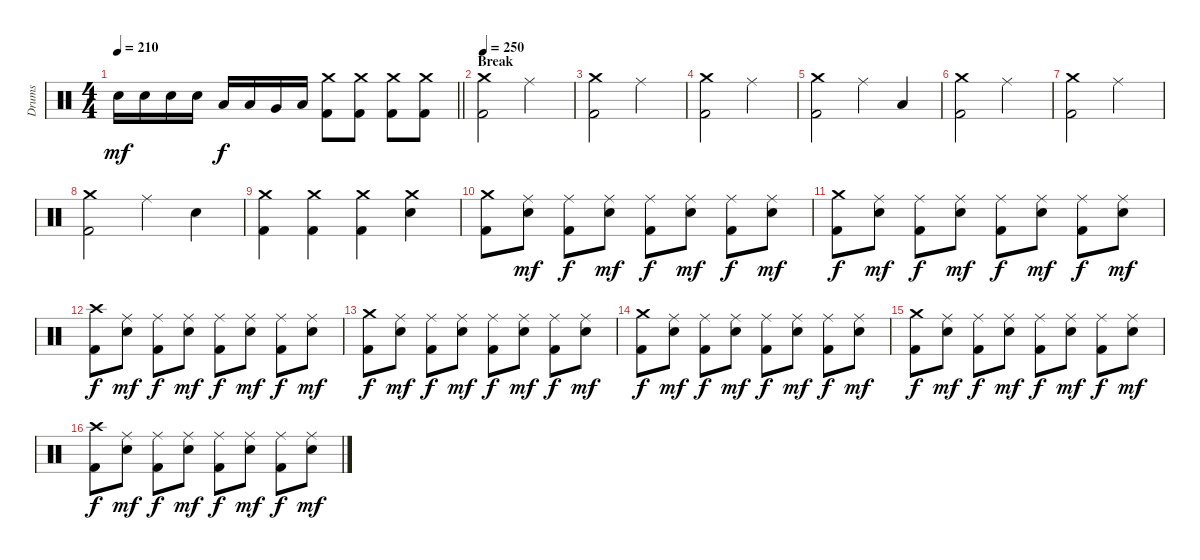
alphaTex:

\track ("Drums" "Drums") {instrument percussion}
\staff {score}
\articulation defaults
\ts (4 4)
\tempo 210
\clef neutral
\barLineRight lightlight
\ks c "Snare (hit) 2".16{dy mf} "Snare (hit) 2".16 "Snare (hit) 2".16 "Snare (hit) 2".16 "Low Tom (hit)".16{dy f} "Low Tom (hit)".16 "Very Low Tom (hit)".16 "Low Floor Tom (hit)".16
("Crash medium (hit)" "Kick (hit) 2").8 ("Crash medium (hit)" "Kick (hit) 2").8 ("Crash medium (hit)" "Kick (hit) 2").8 ("Crash medium (hit)" "Kick (hit) 2").8 |
\section ("" "Break")
\tempo 250
("Crash medium (hit)" "Kick (hit) 2").2 "Ride (middle)".2 |
("Crash medium (hit)" "Kick (hit) 2").2 "Ride (middle)".2 |
("Crash medium (hit)" "Kick (hit) 2").2 "Ride (middle)".2 |
("Crash medium (hit)" "Kick (hit) 2").2 "Ride (middle)".4 "Low Tom (hit)".4 |
("Crash medium (hit)" "Kick (hit) 2").2 "Ride (middle)".2 |
("Crash medium (hit)" "Kick (hit) 2").2 "Ride (middle)".2 |
("Crash medium (hit)" "Kick (hit) 2").2 "Ride (middle)".4 "Snare (hit) 2".4 |
("Crash medium (hit)" "Kick (hit) 2").4 ("Crash medium (hit)" "Kick (hit) 2").4 ("Crash medium (hit)" "Kick (hit) 2").4 ("Crash medium (hit)" "Snare (hit) 2").4 |
("Crash medium (hit)" "Kick (hit) 2").8 ("Ride (middle)" "Snare (hit) 2").8{dy mf} ("Ride (middle)" "Kick (hit) 2").8{dy f} ("Ride (middle)" "Snare (hit) 2").8{dy mf} ("Ride (middle)" "Kick (hit) 2").8{dy f} ("Ride (middle)" "Snare (hit) 2").8{dy mf} ("Ride (middle)" "Kick (hit) 2").8{dy f} ("Ride (middle)" "Snare (hit) 2").8{dy mf} |
("Crash medium (hit)" "Kick (hit) 2").8{dy f} ("Ride (middle)" "Snare (hit) 2").8{dy mf} ("Ride (middle)" "Kick (hit) 2").8{dy f} ("Ride (middle)" "Snare (hit) 2").8{dy mf} ("Ride (middle)" "Kick (hit) 2").8{dy f} ("Ride (middle)" "Snare (hit) 2").8{dy mf} ("Ride (middle)" "Kick (hit) 2").8{dy f} ("Ride (middle)" "Snare (hit) 2").8{dy mf} |
("Crash high (hit)" "Kick (hit) 2").8{dy f} ("Ride (middle)" "Snare (hit) 2").8{dy mf} ("Ride (middle)" "Kick (hit) 2").8{dy f} ("Ride (middle)" "Snare (hit) 2").8{dy mf} ("Ride (middle)" "Kick (hit) 2").8{dy f} ("Ride (middle)" "Snare (hit) 2").8{dy mf} ("Ride (middle)" "Kick (hit) 2").8{dy f} ("Ride (middle)" "Snare (hit) 2").8{dy mf} |
("Crash medium (hit)" "Kick (hit) 2").8{dy f} ("Ride (middle)" "Snare (hit) 2").8{dy mf} ("Ride (middle)" "Kick (hit) 2").8{dy f} ("Ride (middle)" "Snare (hit) 2").8{dy mf} ("Ride (middle)" "Kick (hit) 2").8{dy f} ("Ride (middle)" "Snare (hit) 2").8{dy mf} ("Ride (middle)" "Kick (hit) 2").8{dy f} ("Ride (middle)" "Snare (hit) 2").8{dy mf} |
("Crash medium (hit)" "Kick (hit) 2").8{dy f} ("Ride (middle)" "Snare (hit) 2").8{dy mf} ("Ride (middle)" "Kick (hit) 2").8{dy f} ("Ride (middle)" "Snare (hit) 2").8{dy mf} ("Ride (middle)" "Kick (hit) 2").8{dy f} ("Ride (middle)" "Snare (hit) 2").8{dy mf} ("Ride (middle)" "Kick (hit) 2").8{dy f} ("Ride (middle)" "Snare (hit) 2").8{dy mf} |
("Crash medium (hit)" "Kick (hit) 2").8{dy f} ("Ride (middle)" "Snare (hit) 2").8{dy mf} ("Ride (middle)" "Kick (hit) 2").8{dy f} ("Ride (middle)" "Snare (hit) 2").8{dy mf} ("Ride (middle)" "Kick (hit) 2").8{dy f} ("Ride (middle)" "Snare (hit) 2").8{dy mf} ("Ride (middle)" "Kick (hit) 2").8{dy f} ("Ride (middle)" "Snare (hit) 2").8{dy mf} |
("Crash high (hit)" "Kick (hit) 2").8{dy f} ("Ride (middle)" "Snare (hit) 2").8{dy mf} ("Ride (middle)" "Kick (hit) 2").8{dy f} ("Ride (middle)" "Snare (hit) 2").8{dy mf} ("Ride (middle)" "Kick (hit) 2").8{dy f} ("Ride (middle)" "Snare (hit) 2").8{dy mf} ("Ride (middle)" "Kick (hit) 2").8{dy f} ("Ride (middle)" "Snare (hit) 2").8{dy mf}
